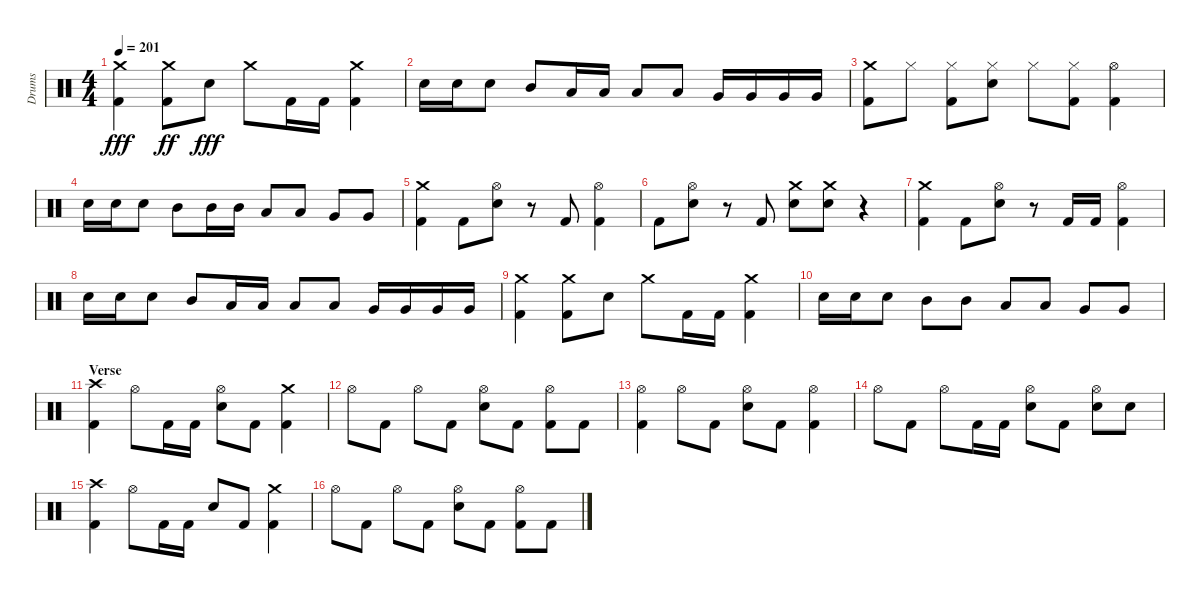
\track ("Drums" "Drums") {instrument percussion}
\staff {score}
\articulation defaults
\ts (4 4)
\tempo 201
\clef neutral
\ks aminor
("Crash medium (hit)" "Kick (hit) 2").4{dy fff} ("Crash medium (hit)" "Kick (hit) 2").8{dy ff} "Snare (hit) 2".8{dy fff} "Crash medium (hit)".8 "Kick (hit) 2".16 "Kick (hit) 2".16 ("Kick (hit) 2" "Crash medium (hit)").4 |
"Snare (hit) 2".16 "Snare (hit) 2".16 "Snare (hit) 2".8 "Mid Tom (hit)".8 "Low Tom (hit)".16 "Low Tom (hit)".16 "Low Tom (hit)".8 "Low Tom (hit)".8 "Very Low Tom (hit)".16 "Very Low Tom (hit)".16 "Very Low Tom (hit)".16 "Very Low Tom (hit)".16 |
("Kick (hit) 2" "Crash medium (hit)").8 "Hi-Hat (closed)".8 ("Kick (hit) 2" "Hi-Hat (closed)").8 ("Snare (hit) 2" "Hi-Hat (closed)").8 "Hi-Hat (closed)".8 ("Hi-Hat (closed)" "Kick (hit) 2").8 ("Kick (hit) 2" "Hi-Hat (open)").4 |
"Snare (hit) 2".16 "Snare (hit) 2".16 "Snare (hit) 2".8 "Mid Tom (hit)".8 "Mid Tom (hit)".16 "Mid Tom (hit)".16 "Low Tom (hit)".8 "Low Tom (hit)".8 "Very Low Tom (hit)".8 "Very Low Tom (hit)".8 |
("Kick (hit) 2" "Crash medium (hit)").4 "Kick (hit) 2".8 ("Hi-Hat (open)" "Snare (hit) 2").8 r.8 "Kick (hit) 2".8 ("Kick (hit) 2" "Hi-Hat (open)").4 |
"Kick (hit) 2".8 ("Hi-Hat (open)" "Snare (hit) 2").8 r.8 "Kick (hit) 2".8 ("Snare (hit) 2" "Crash medium (hit)").8 ("Crash medium (hit)" "Snare (hit) 2").8 r.4 |
("Kick (hit) 2" "Crash medium (hit)").4 "Kick (hit) 2".8 ("Hi-Hat (open)" "Snare (hit) 2").8 r.8 "Kick (hit) 2".16 "Kick (hit) 2".16 ("Kick (hit) 2" "Hi-Hat (open)").4 |
"Snare (hit) 2".16 "Snare (hit) 2".16 "Snare (hit) 2".8 "Mid Tom (hit)".8 "Low Tom (hit)".16 "Low Tom (hit)".16 "Low Tom (hit)".8 "Low Tom (hit)".8 "Very Low Tom (hit)".16 "Very Low Tom (hit)".16 "Very Low Tom (hit)".16 "Very Low Tom (hit)".16 |
("Crash medium (hit)" "Kick (hit) 2").4 ("Kick (hit) 2" "Crash medium (hit)").8 "Snare (hit) 2".8 "Crash medium (hit)".8 "Kick (hit) 2".16 "Kick (hit) 2".16 ("Kick (hit) 2" "Crash medium (hit)").4 |
"Snare (hit) 2".16 "Snare (hit) 2".16 "Snare (hit) 2".8 "Mid Tom (hit)".8 "Mid Tom (hit)".8 "Low Tom (hit)".8 "Low Tom (hit)".8 "Very Low Tom (hit)".8 "Very Low Tom (hit)".8 |
\section ("" "Verse")
("Kick (hit) 2" "Crash high (hit)").4 "Hi-Hat (open)".8 "Kick (hit) 2".16 "Kick (hit) 2".16 ("Snare (hit) 2" "Hi-Hat (open)").8 "Kick (hit) 2".8 ("Crash medium (hit)" "Kick (hit) 2").4 |
"Hi-Hat (open)".8 "Kick (hit) 2".8 "Hi-Hat (open)".8 "Kick (hit) 2".8 ("Hi-Hat (open)" "Snare (hit) 2").8 "Kick (hit) 2".8 ("Kick (hit) 2" "Hi-Hat (open)").8 "Kick (hit) 2".8 |
("Kick (hit) 2" "Hi-Hat (open)").4 "Hi-Hat (open)".8 "Kick (hit) 2".8 ("Snare (hit) 2" "Hi-Hat (open)").8 "Kick (hit) 2".8 ("Hi-Hat (open)" "Kick (hit) 2").4 |
"Hi-Hat (open)".8 "Kick (hit) 2".8 "Hi-Hat (open)".8 "Kick (hit) 2".16 "Kick (hit) 2".16 ("Snare (hit) 2" "Hi-Hat (open)").8 "Kick (hit) 2".8 ("Snare (hit) 2" "Hi-Hat (open)").8 "Snare (hit) 2".8 |
("Kick (hit) 2" "Crash high (hit)").4 "Hi-Hat (open)".8 "Kick (hit) 2".16 "Kick (hit) 2".16 "Snare (hit) 2".8 "Kick (hit) 2".8 ("Kick (hit) 2" "Crash medium (hit)").4 |
"Hi-Hat (open)".8 "Kick (hit) 2".8 "Hi-Hat (open)".8 "Kick (hit) 2".8 ("Snare (hit) 2" "Hi-Hat (open)").8 "Kick (hit) 2".8 ("Hi-Hat (open)" "Kick (hit) 2").8 "Kick (hit) 2".8
